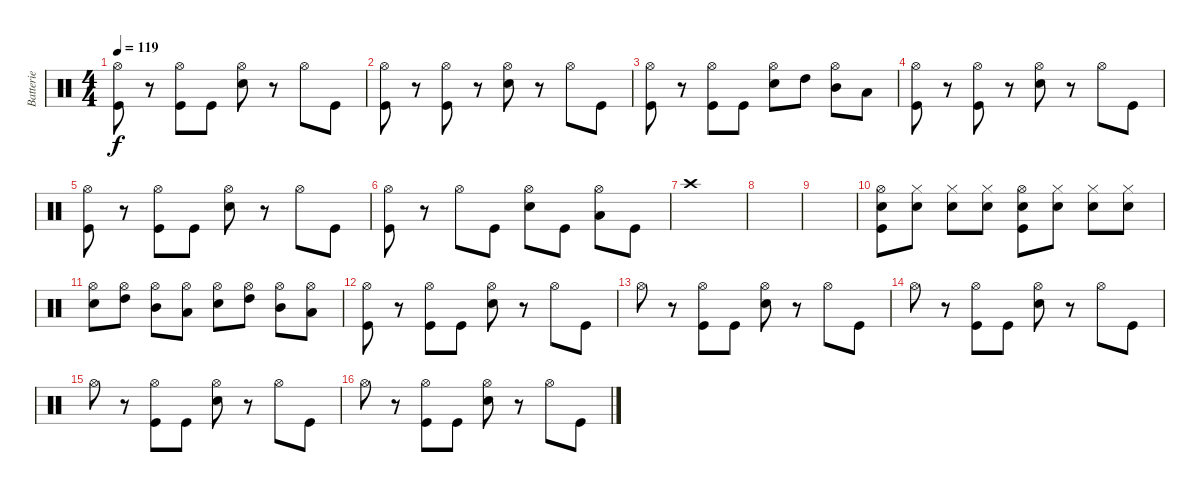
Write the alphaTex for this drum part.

\track ("Batterie" "Batterie") {instrument percussion}
\staff {score}
\articulation defaults
\ts (4 4)
\tempo 119
\clef neutral
\ks c
("Hi-Hat (open)" "Kick (hit)").8{dy f} r.8 ("Hi-Hat (open)" "Kick (hit)").8 "Kick (hit)".8 ("Hi-Hat (open)" "Electric Snare (hit)").8 r.8 "Hi-Hat (open)".8 "Kick (hit)".8 |
("Hi-Hat (open)" "Kick (hit)").8 r.8 ("Hi-Hat (open)" "Kick (hit)").8 r.8 ("Hi-Hat (open)" "Electric Snare (hit)").8 r.8 "Hi-Hat (open)".8 "Kick (hit)".8 |
("Hi-Hat (open)" "Kick (hit)").8 r.8 ("Hi-Hat (open)" "Kick (hit)").8 "Kick (hit)".8 ("Hi-Hat (open)" "Electric Snare (hit)").8 "High Tom (hit)".8 ("Hi-Hat (open)" "Mid Tom (hit)").8 "Low Floor Tom (hit)".8 |
("Hi-Hat (open)" "Kick (hit)").8 r.8 ("Hi-Hat (open)" "Kick (hit)").8 r.8 ("Hi-Hat (open)" "Electric Snare (hit)").8 r.8 "Hi-Hat (open)".8 "Kick (hit)".8 |
("Hi-Hat (open)" "Kick (hit)").8 r.8 ("Hi-Hat (open)" "Kick (hit)").8 "Kick (hit)".8 ("Hi-Hat (open)" "Electric Snare (hit)").8 r.8 "Hi-Hat (open)".8 "Kick (hit)".8 |
("Hi-Hat (open)" "Kick (hit)").8 r.8 "Hi-Hat (open)".8 "Kick (hit)".8 ("Hi-Hat (open)" "Electric Snare (hit)").8 "Kick (hit)".8 ("Hi-Hat (open)" "Low Floor Tom (hit)").8 "Kick (hit)".8 |
"Crash high (hit)".1 |
|
|
("Hi-Hat (open)" "Electric Snare (hit)" "Kick (hit)").8 ("Hi-Hat (closed)" "Electric Snare (hit)").8 ("Hi-Hat (closed)" "Electric Snare (hit)").8 ("Hi-Hat (closed)" "Electric Snare (hit)").8 ("Hi-Hat (open)" "Electric Snare (hit)" "Kick (hit)").8 ("Hi-Hat (closed)" "Electric Snare (hit)").8 ("Hi-Hat (closed)" "Electric Snare (hit)").8 ("Hi-Hat (closed)" "Electric Snare (hit)").8 |
("Hi-Hat (open)" "Electric Snare (hit)").8 ("Hi-Hat (open)" "High Tom (hit)").8 ("Hi-Hat (open)" "Mid Tom (hit)").8 ("Hi-Hat (open)" "Low Tom (hit)").8 ("Hi-Hat (open)" "Electric Snare (hit)").8 ("Hi-Hat (open)" "High Tom (hit)").8 ("Hi-Hat (open)" "Mid Tom (hit)").8 ("Hi-Hat (open)" "Low Tom (hit)").8 |
("Hi-Hat (open)" "Kick (hit)").8 r.8 ("Hi-Hat (open)" "Kick (hit)").8 "Kick (hit)".8 ("Hi-Hat (open)" "Electric Snare (hit)").8 r.8 "Hi-Hat (open)".8 "Kick (hit)".8 |
"Hi-Hat (open)".8 r.8 ("Hi-Hat (open)" "Kick (hit)").8 "Kick (hit)".8 ("Hi-Hat (open)" "Electric Snare (hit)").8 r.8 "Hi-Hat (open)".8 "Kick (hit)".8 |
"Hi-Hat (open)".8 r.8 ("Hi-Hat (open)" "Kick (hit)").8 "Kick (hit)".8 ("Hi-Hat (open)" "Electric Snare (hit)").8 r.8 "Hi-Hat (open)".8 "Kick (hit)".8 |
"Hi-Hat (open)".8 r.8 ("Hi-Hat (open)" "Kick (hit)").8 "Kick (hit)".8 ("Hi-Hat (open)" "Electric Snare (hit)").8 r.8 "Hi-Hat (open)".8 "Kick (hit)".8 |
"Hi-Hat (open)".8 r.8 ("Hi-Hat (open)" "Kick (hit)").8 "Kick (hit)".8 ("Hi-Hat (open)" "Electric Snare (hit)").8 r.8 "Hi-Hat (open)".8 "Kick (hit)".8
